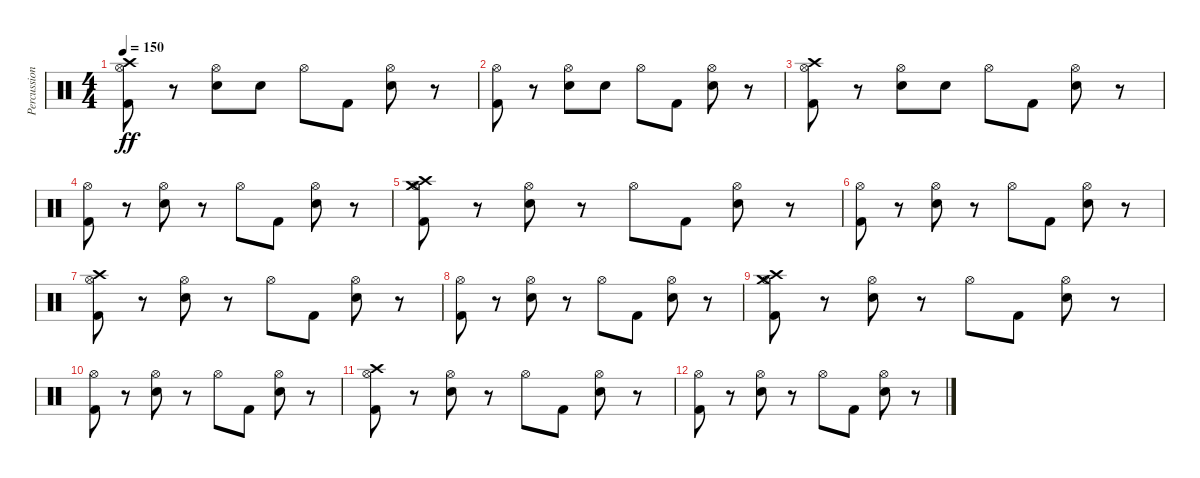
\track ("Percussion" "Percussion") {instrument percussion}
\staff {score}
\articulation defaults
\ts (4 4)
\tempo 150
\clef neutral
\ks c
("Hi-Hat (open)" "Crash high (hit)" "Kick (hit) 2").8{dy ff} r.8 ("Hi-Hat (open)" "Snare (hit) 2").8 "Snare (hit) 2".8 "Hi-Hat (open)".8 "Kick (hit) 2".8 ("Hi-Hat (open)" "Snare (hit) 2").8 r.8 |
("Hi-Hat (open)" "Kick (hit) 2").8 r.8 ("Hi-Hat (open)" "Snare (hit) 2").8 "Snare (hit) 2".8 "Hi-Hat (open)".8 "Kick (hit) 2".8 ("Hi-Hat (open)" "Snare (hit) 2").8 r.8 |
("Hi-Hat (open)" "Crash high (hit)" "Kick (hit) 2").8 r.8 ("Hi-Hat (open)" "Snare (hit) 2").8 "Snare (hit) 2".8 "Hi-Hat (open)".8 "Kick (hit) 2".8 ("Hi-Hat (open)" "Snare (hit) 2").8 r.8 |
("Hi-Hat (open)" "Kick (hit) 2").8 r.8 ("Hi-Hat (open)" "Snare (hit) 2").8 r.8 "Hi-Hat (open)".8 "Kick (hit) 2".8 ("Hi-Hat (open)" "Snare (hit) 2").8 r.8 |
("Hi-Hat (open)" "Crash high (hit)" "Crash medium (hit)" "Kick (hit) 2").8 r.8 ("Hi-Hat (open)" "Snare (hit) 2").8 r.8 "Hi-Hat (open)".8 "Kick (hit) 2".8 ("Hi-Hat (open)" "Snare (hit) 2").8 r.8 |
("Hi-Hat (open)" "Kick (hit) 2").8 r.8 ("Hi-Hat (open)" "Snare (hit) 2").8 r.8 "Hi-Hat (open)".8 "Kick (hit) 2".8 ("Hi-Hat (open)" "Snare (hit) 2").8 r.8 |
("Hi-Hat (open)" "Crash high (hit)" "Kick (hit) 2").8 r.8 ("Hi-Hat (open)" "Snare (hit) 2").8 r.8 "Hi-Hat (open)".8 "Kick (hit) 2".8 ("Hi-Hat (open)" "Snare (hit) 2").8 r.8 |
("Hi-Hat (open)" "Kick (hit) 2").8 r.8 ("Hi-Hat (open)" "Snare (hit) 2").8 r.8 "Hi-Hat (open)".8 "Kick (hit) 2".8 ("Hi-Hat (open)" "Snare (hit) 2").8 r.8 |
("Hi-Hat (open)" "Crash high (hit)" "Crash medium (hit)" "Kick (hit) 2").8 r.8 ("Hi-Hat (open)" "Snare (hit) 2").8 r.8 "Hi-Hat (open)".8 "Kick (hit) 2".8 ("Hi-Hat (open)" "Snare (hit) 2").8 r.8 |
("Hi-Hat (open)" "Kick (hit) 2").8 r.8 ("Hi-Hat (open)" "Snare (hit) 2").8 r.8 "Hi-Hat (open)".8 "Kick (hit) 2".8 ("Hi-Hat (open)" "Snare (hit) 2").8 r.8 |
("Hi-Hat (open)" "Crash high (hit)" "Kick (hit) 2").8 r.8 ("Hi-Hat (open)" "Snare (hit) 2").8 r.8 "Hi-Hat (open)".8 "Kick (hit) 2".8 ("Hi-Hat (open)" "Snare (hit) 2").8 r.8 |
("Hi-Hat (open)" "Kick (hit) 2").8 r.8 ("Hi-Hat (open)" "Snare (hit) 2").8 r.8 "Hi-Hat (open)".8 "Kick (hit) 2".8 ("Hi-Hat (open)" "Snare (hit) 2").8 r.8
